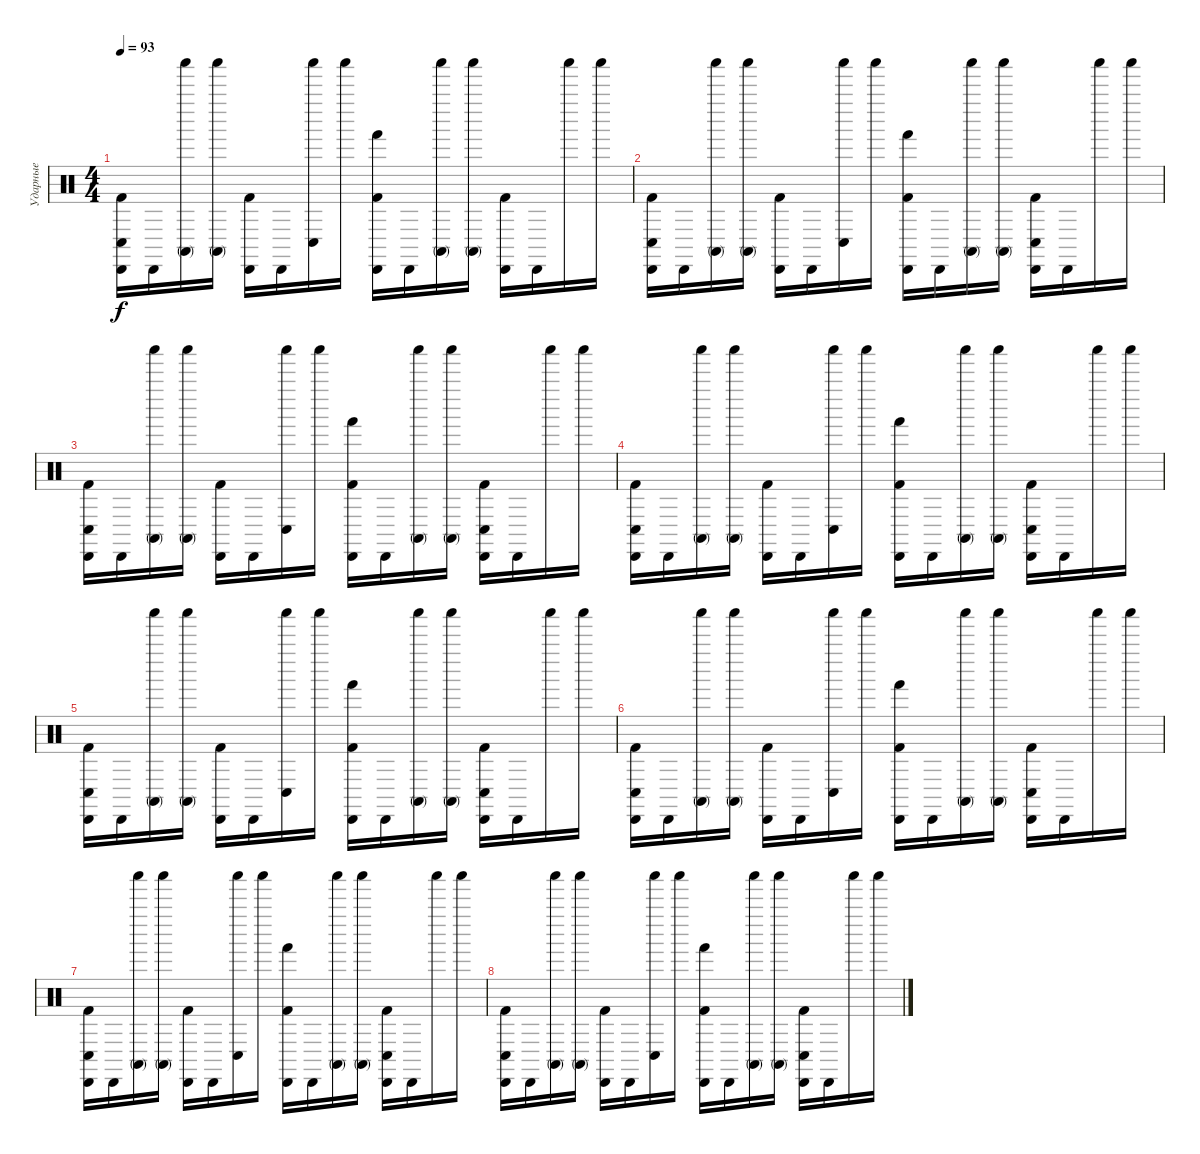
\track ("Ударные" "Ударные") {solo instrument percussion}
\staff {score}
\articulation defaults
\ts (4 4)
\tempo 93
\clef neutral
\ks c
("Kick (hit) 2" "Conga low (hit)" "Cabasa (hit)").16{dy f} "Cabasa (hit)".16 ("Conga high (mute)" "Shaker (hit)").16 ("Conga high (mute)" "Shaker (hit)").16 ("Kick (hit) 2" "Cabasa (hit)").16 "Cabasa (hit)".16 ("Conga low (hit)" "Shaker (hit)").16 "Shaker (hit)".16 ("Kick (hit) 2" "Hand (hit)" "Cabasa (hit)").16 "Cabasa (hit)".16 ("Conga high (mute)" "Shaker (hit)").16 ("Conga high (mute)" "Shaker (hit)").16 ("Kick (hit) 2" "Cabasa (hit)").16 "Cabasa (hit)".16 "Shaker (hit)".16 "Shaker (hit)".16 |
("Kick (hit) 2" "Conga low (hit)" "Cabasa (hit)").16 "Cabasa (hit)".16 ("Conga high (mute)" "Shaker (hit)").16 ("Conga high (mute)" "Shaker (hit)").16 ("Kick (hit) 2" "Cabasa (hit)").16 "Cabasa (hit)".16 ("Conga low (hit)" "Shaker (hit)").16 "Shaker (hit)".16 ("Kick (hit) 2" "Hand (hit)" "Cabasa (hit)").16 "Cabasa (hit)".16 ("Conga high (mute)" "Shaker (hit)").16 ("Conga high (mute)" "Shaker (hit)").16 ("Kick (hit) 2" "Conga low (hit)" "Cabasa (hit)").16 "Cabasa (hit)".16 "Shaker (hit)".16 "Shaker (hit)".16 |
("Kick (hit) 2" "Conga low (hit)" "Cabasa (hit)").16 "Cabasa (hit)".16 ("Conga high (mute)" "Shaker (hit)").16 ("Conga high (mute)" "Shaker (hit)").16 ("Kick (hit) 2" "Cabasa (hit)").16 "Cabasa (hit)".16 ("Conga low (hit)" "Shaker (hit)").16 "Shaker (hit)".16 ("Kick (hit) 2" "Hand (hit)" "Cabasa (hit)").16 "Cabasa (hit)".16 ("Conga high (mute)" "Shaker (hit)").16 ("Conga high (mute)" "Shaker (hit)").16 ("Kick (hit) 2" "Conga low (hit)" "Cabasa (hit)").16 "Cabasa (hit)".16 "Shaker (hit)".16 "Shaker (hit)".16 |
("Kick (hit) 2" "Conga low (hit)" "Cabasa (hit)").16 "Cabasa (hit)".16 ("Conga high (mute)" "Shaker (hit)").16 ("Conga high (mute)" "Shaker (hit)").16 ("Kick (hit) 2" "Cabasa (hit)").16 "Cabasa (hit)".16 ("Conga low (hit)" "Shaker (hit)").16 "Shaker (hit)".16 ("Kick (hit) 2" "Hand (hit)" "Cabasa (hit)").16 "Cabasa (hit)".16 ("Conga high (mute)" "Shaker (hit)").16 ("Conga high (mute)" "Shaker (hit)").16 ("Kick (hit) 2" "Conga low (hit)" "Cabasa (hit)").16 "Cabasa (hit)".16 "Shaker (hit)".16 "Shaker (hit)".16 |
("Kick (hit) 2" "Conga low (hit)" "Cabasa (hit)").16 "Cabasa (hit)".16 ("Conga high (mute)" "Shaker (hit)").16 ("Conga high (mute)" "Shaker (hit)").16 ("Kick (hit) 2" "Cabasa (hit)").16 "Cabasa (hit)".16 ("Conga low (hit)" "Shaker (hit)").16 "Shaker (hit)".16 ("Kick (hit) 2" "Hand (hit)" "Cabasa (hit)").16 "Cabasa (hit)".16 ("Conga high (mute)" "Shaker (hit)").16 ("Conga high (mute)" "Shaker (hit)").16 ("Kick (hit) 2" "Conga low (hit)" "Cabasa (hit)").16 "Cabasa (hit)".16 "Shaker (hit)".16 "Shaker (hit)".16 |
("Kick (hit) 2" "Conga low (hit)" "Cabasa (hit)").16 "Cabasa (hit)".16 ("Conga high (mute)" "Shaker (hit)").16 ("Conga high (mute)" "Shaker (hit)").16 ("Kick (hit) 2" "Cabasa (hit)").16 "Cabasa (hit)".16 ("Conga low (hit)" "Shaker (hit)").16 "Shaker (hit)".16 ("Kick (hit) 2" "Hand (hit)" "Cabasa (hit)").16 "Cabasa (hit)".16 ("Conga high (mute)" "Shaker (hit)").16 ("Conga high (mute)" "Shaker (hit)").16 ("Kick (hit) 2" "Conga low (hit)" "Cabasa (hit)").16 "Cabasa (hit)".16 "Shaker (hit)".16 "Shaker (hit)".16 |
("Kick (hit) 2" "Conga low (hit)" "Cabasa (hit)").16 "Cabasa (hit)".16 ("Conga high (mute)" "Shaker (hit)").16 ("Conga high (mute)" "Shaker (hit)").16 ("Kick (hit) 2" "Cabasa (hit)").16 "Cabasa (hit)".16 ("Conga low (hit)" "Shaker (hit)").16 "Shaker (hit)".16 ("Kick (hit) 2" "Hand (hit)" "Cabasa (hit)").16 "Cabasa (hit)".16 ("Conga high (mute)" "Shaker (hit)").16 ("Conga high (mute)" "Shaker (hit)").16 ("Kick (hit) 2" "Conga low (hit)" "Cabasa (hit)").16 "Cabasa (hit)".16 "Shaker (hit)".16 "Shaker (hit)".16 |
("Kick (hit) 2" "Conga low (hit)" "Cabasa (hit)").16 "Cabasa (hit)".16 ("Conga high (mute)" "Shaker (hit)").16 ("Conga high (mute)" "Shaker (hit)").16 ("Kick (hit) 2" "Cabasa (hit)").16 "Cabasa (hit)".16 ("Conga low (hit)" "Shaker (hit)").16 "Shaker (hit)".16 ("Kick (hit) 2" "Hand (hit)" "Cabasa (hit)").16 "Cabasa (hit)".16 ("Conga high (mute)" "Shaker (hit)").16 ("Conga high (mute)" "Shaker (hit)").16 ("Kick (hit) 2" "Conga low (hit)" "Cabasa (hit)").16 "Cabasa (hit)".16 "Shaker (hit)".16 "Shaker (hit)".16
